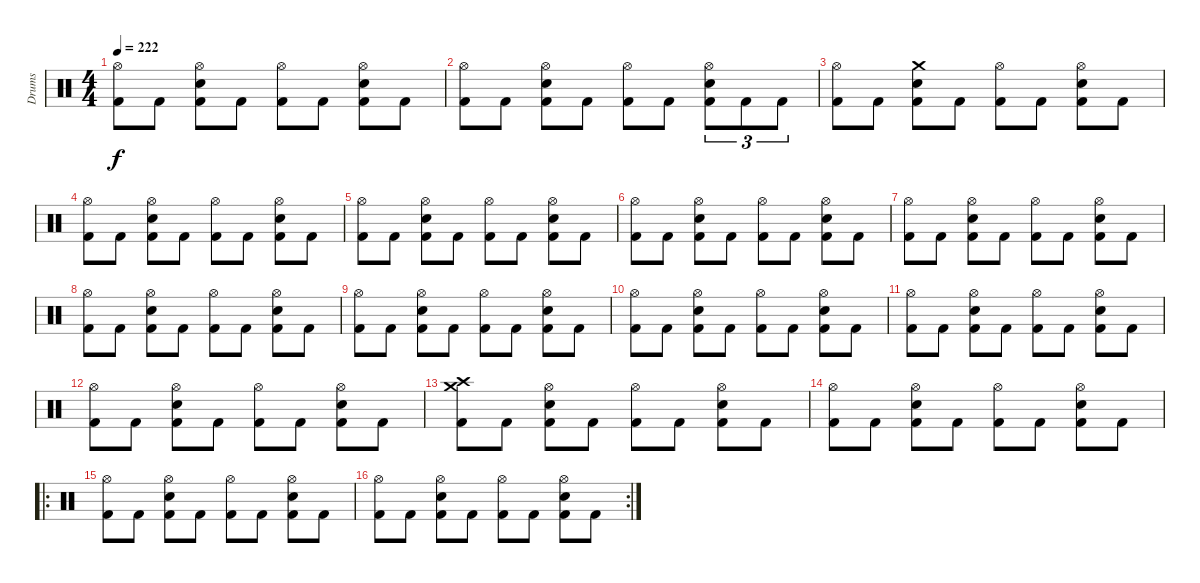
\track ("Drums" "Drums") {instrument percussion}
\staff {score}
\articulation defaults
\ts (4 4)
\tempo 222
\clef neutral
\ks c
("Hi-Hat (open)" "Kick (hit) 2").8{dy f} "Kick (hit) 2".8 ("Hi-Hat (open)" "Electric Snare (hit)" "Kick (hit) 2").8 "Kick (hit) 2".8 ("Hi-Hat (open)" "Kick (hit) 2").8 "Kick (hit) 2".8 ("Hi-Hat (open)" "Electric Snare (hit)" "Kick (hit) 2").8 "Kick (hit) 2".8 |
("Hi-Hat (open)" "Kick (hit) 2").8 "Kick (hit) 2".8 ("Hi-Hat (open)" "Electric Snare (hit)" "Kick (hit) 2").8 "Kick (hit) 2".8 ("Hi-Hat (open)" "Kick (hit) 2").8 "Kick (hit) 2".8 ("Hi-Hat (open)" "Electric Snare (hit)" "Kick (hit) 2").8{tu (3 2)} "Kick (hit) 2".8{tu (3 2)} "Kick (hit) 2".8{tu (3 2)} |
("Hi-Hat (open)" "Kick (hit) 2").8 "Kick (hit) 2".8 ("Crash medium (hit)" "Electric Snare (hit)" "Kick (hit) 2").8 "Kick (hit) 2".8 ("Hi-Hat (open)" "Kick (hit) 2").8 "Kick (hit) 2".8 ("Hi-Hat (open)" "Electric Snare (hit)" "Kick (hit) 2").8 "Kick (hit) 2".8 |
("Hi-Hat (open)" "Kick (hit) 2").8 "Kick (hit) 2".8 ("Hi-Hat (open)" "Electric Snare (hit)" "Kick (hit) 2").8 "Kick (hit) 2".8 ("Hi-Hat (open)" "Kick (hit) 2").8 "Kick (hit) 2".8 ("Hi-Hat (open)" "Electric Snare (hit)" "Kick (hit) 2").8 "Kick (hit) 2".8 |
("Hi-Hat (open)" "Kick (hit) 2").8 "Kick (hit) 2".8 ("Hi-Hat (open)" "Electric Snare (hit)" "Kick (hit) 2").8 "Kick (hit) 2".8 ("Hi-Hat (open)" "Kick (hit) 2").8 "Kick (hit) 2".8 ("Hi-Hat (open)" "Electric Snare (hit)" "Kick (hit) 2").8 "Kick (hit) 2".8 |
("Hi-Hat (open)" "Kick (hit) 2").8 "Kick (hit) 2".8 ("Hi-Hat (open)" "Electric Snare (hit)" "Kick (hit) 2").8 "Kick (hit) 2".8 ("Hi-Hat (open)" "Kick (hit) 2").8 "Kick (hit) 2".8 ("Hi-Hat (open)" "Electric Snare (hit)" "Kick (hit) 2").8 "Kick (hit) 2".8 |
("Hi-Hat (open)" "Kick (hit) 2").8 "Kick (hit) 2".8 ("Hi-Hat (open)" "Electric Snare (hit)" "Kick (hit) 2").8 "Kick (hit) 2".8 ("Hi-Hat (open)" "Kick (hit) 2").8 "Kick (hit) 2".8 ("Hi-Hat (open)" "Electric Snare (hit)" "Kick (hit) 2").8 "Kick (hit) 2".8 |
("Hi-Hat (open)" "Kick (hit) 2").8 "Kick (hit) 2".8 ("Hi-Hat (open)" "Electric Snare (hit)" "Kick (hit) 2").8 "Kick (hit) 2".8 ("Hi-Hat (open)" "Kick (hit) 2").8 "Kick (hit) 2".8 ("Hi-Hat (open)" "Electric Snare (hit)" "Kick (hit) 2").8 "Kick (hit) 2".8 |
("Hi-Hat (open)" "Kick (hit) 2").8 "Kick (hit) 2".8 ("Hi-Hat (open)" "Electric Snare (hit)" "Kick (hit) 2").8 "Kick (hit) 2".8 ("Hi-Hat (open)" "Kick (hit) 2").8 "Kick (hit) 2".8 ("Hi-Hat (open)" "Electric Snare (hit)" "Kick (hit) 2").8 "Kick (hit) 2".8 |
("Hi-Hat (open)" "Kick (hit) 2").8 "Kick (hit) 2".8 ("Hi-Hat (open)" "Electric Snare (hit)" "Kick (hit) 2").8 "Kick (hit) 2".8 ("Hi-Hat (open)" "Kick (hit) 2").8 "Kick (hit) 2".8 ("Hi-Hat (open)" "Electric Snare (hit)" "Kick (hit) 2").8 "Kick (hit) 2".8 |
("Hi-Hat (open)" "Kick (hit) 2").8 "Kick (hit) 2".8 ("Hi-Hat (open)" "Electric Snare (hit)" "Kick (hit) 2").8 "Kick (hit) 2".8 ("Hi-Hat (open)" "Kick (hit) 2").8 "Kick (hit) 2".8 ("Hi-Hat (open)" "Electric Snare (hit)" "Kick (hit) 2").8 "Kick (hit) 2".8 |
("Hi-Hat (open)" "Kick (hit) 2").8 "Kick (hit) 2".8 ("Hi-Hat (open)" "Electric Snare (hit)" "Kick (hit) 2").8 "Kick (hit) 2".8 ("Hi-Hat (open)" "Kick (hit) 2").8 "Kick (hit) 2".8 ("Hi-Hat (open)" "Electric Snare (hit)" "Kick (hit) 2").8 "Kick (hit) 2".8 |
("Crash medium (hit)" "Crash high (hit)" "Kick (hit) 2").8 "Kick (hit) 2".8 ("Hi-Hat (open)" "Electric Snare (hit)" "Kick (hit) 2").8 "Kick (hit) 2".8 ("Hi-Hat (open)" "Kick (hit) 2").8 "Kick (hit) 2".8 ("Hi-Hat (open)" "Electric Snare (hit)" "Kick (hit) 2").8 "Kick (hit) 2".8 |
("Hi-Hat (open)" "Kick (hit) 2").8 "Kick (hit) 2".8 ("Hi-Hat (open)" "Electric Snare (hit)" "Kick (hit) 2").8 "Kick (hit) 2".8 ("Hi-Hat (open)" "Kick (hit) 2").8 "Kick (hit) 2".8 ("Hi-Hat (open)" "Electric Snare (hit)" "Kick (hit) 2").8 "Kick (hit) 2".8 |
\ro
("Hi-Hat (open)" "Kick (hit) 2").8 "Kick (hit) 2".8 ("Hi-Hat (open)" "Electric Snare (hit)" "Kick (hit) 2").8 "Kick (hit) 2".8 ("Hi-Hat (open)" "Kick (hit) 2").8 "Kick (hit) 2".8 ("Hi-Hat (open)" "Electric Snare (hit)" "Kick (hit) 2").8 "Kick (hit) 2".8 |
\rc 2
("Hi-Hat (open)" "Kick (hit) 2").8 "Kick (hit) 2".8 ("Hi-Hat (open)" "Electric Snare (hit)" "Kick (hit) 2").8 "Kick (hit) 2".8 ("Hi-Hat (open)" "Kick (hit) 2").8 "Kick (hit) 2".8 ("Hi-Hat (open)" "Electric Snare (hit)" "Kick (hit) 2").8 "Kick (hit) 2".8
